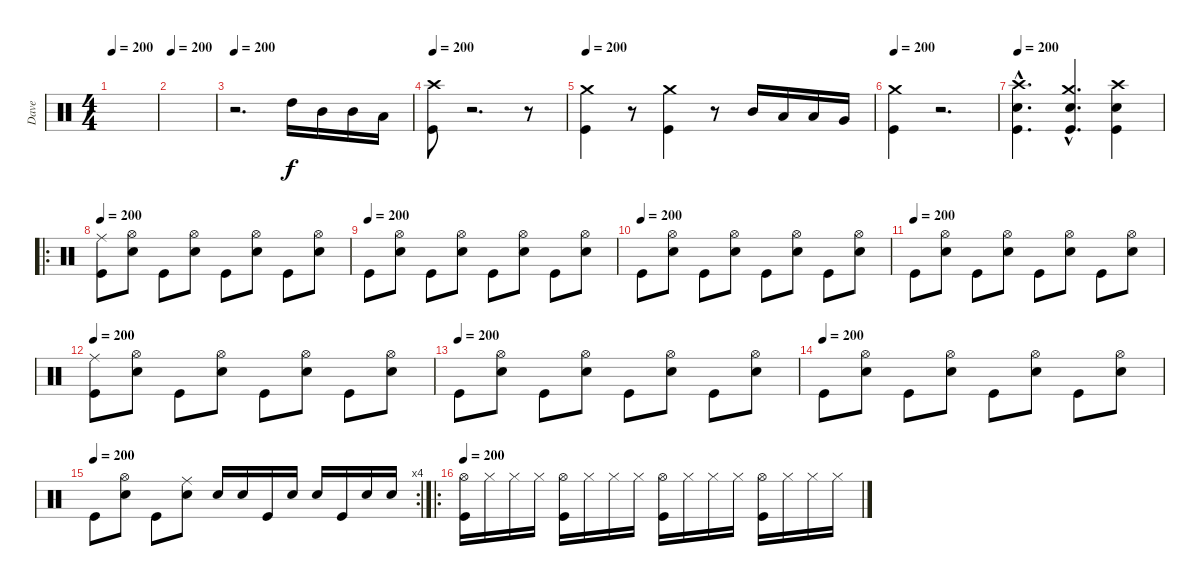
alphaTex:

\track ("Dave" "Dave") {instrument percussion}
\staff {score}
\articulation defaults
\ts (4 4)
\tempo 200
\clef neutral
\ks c
|
\tempo 200
|
\tempo 200
r.2{d} "High Tom (hit)".16 "Mid Tom (hit)".16 "Mid Tom (hit)".16 "Low Tom (hit)".16 |
\tempo 200
("Crash high (hit)" "Kick (hit)").8 r.2{d} r.8 |
\tempo 200
("Crash medium (hit)" "Kick (hit)").4 r.8 ("Crash medium (hit)" "Kick (hit)").4 r.8 "Mid Tom (hit)".16 "Low Tom (hit)".16 "Low Tom (hit)".16 "Very Low Tom (hit)".16 |
\tempo 200
("Crash medium (hit)" "Kick (hit)").4 r.2{d} |
\tempo 200
("Snare (hit) 2"{hac} "Crash high (hit)"{hac} "Kick (hit)"{hac}).4{d} ("Snare (hit) 2"{hac} "Crash medium (hit)"{hac} "Kick (hit)"{hac}).4{d} ("Snare (hit) 2" "Crash high (hit)" "Kick (hit)").4 |
\ro
\tempo 200
("Ride (middle)" "Kick (hit)").8 ("Hi-Hat (open)" "Snare (hit) 2").8 "Kick (hit)".8 ("Hi-Hat (open)" "Snare (hit) 2").8 "Kick (hit)".8 ("Hi-Hat (open)" "Snare (hit) 2").8 "Kick (hit)".8 ("Hi-Hat (open)" "Snare (hit) 2").8 |
\tempo (200)
"Kick (hit)".8 ("Hi-Hat (open)" "Snare (hit) 2").8 "Kick (hit)".8 ("Hi-Hat (open)" "Snare (hit) 2").8 "Kick (hit)".8 ("Hi-Hat (open)" "Snare (hit) 2").8 "Kick (hit)".8 ("Hi-Hat (open)" "Snare (hit) 2").8 |
\tempo (200)
"Kick (hit)".8 ("Hi-Hat (open)" "Snare (hit) 2").8 "Kick (hit)".8 ("Hi-Hat (open)" "Snare (hit) 2").8 "Kick (hit)".8 ("Hi-Hat (open)" "Snare (hit) 2").8 "Kick (hit)".8 ("Hi-Hat (open)" "Snare (hit) 2").8 |
\tempo (200)
"Kick (hit)".8 ("Hi-Hat (open)" "Snare (hit) 2").8 "Kick (hit)".8 ("Hi-Hat (open)" "Snare (hit) 2").8 "Kick (hit)".8 ("Hi-Hat (open)" "Snare (hit) 2").8 "Kick (hit)".8 ("Hi-Hat (open)" "Snare (hit) 2").8 |
\tempo 200
("Ride (middle)" "Kick (hit)").8 ("Hi-Hat (open)" "Snare (hit) 2").8 "Kick (hit)".8 ("Hi-Hat (open)" "Snare (hit) 2").8 "Kick (hit)".8 ("Hi-Hat (open)" "Snare (hit) 2").8 "Kick (hit)".8 ("Hi-Hat (open)" "Snare (hit) 2").8 |
\tempo (200)
"Kick (hit)".8 ("Hi-Hat (open)" "Snare (hit) 2").8 "Kick (hit)".8 ("Hi-Hat (open)" "Snare (hit) 2").8 "Kick (hit)".8 ("Hi-Hat (open)" "Snare (hit) 2").8 "Kick (hit)".8 ("Hi-Hat (open)" "Snare (hit) 2").8 |
\tempo (200)
"Kick (hit)".8 ("Hi-Hat (open)" "Snare (hit) 2").8 "Kick (hit)".8 ("Hi-Hat (open)" "Snare (hit) 2").8 "Kick (hit)".8 ("Hi-Hat (open)" "Snare (hit) 2").8 "Kick (hit)".8 ("Hi-Hat (open)" "Snare (hit) 2").8 |
\rc 4
\tempo (200)
"Kick (hit)".8 ("Hi-Hat (open)" "Snare (hit) 2").8 "Kick (hit)".8 ("Ride (middle)" "Snare (hit) 2").8 "Snare (hit) 2".16 "Snare (hit) 2".16 "Kick (hit)".16 "Snare (hit) 2".16 "Snare (hit) 2".16 "Kick (hit)".16 "Snare (hit) 2".16 "Snare (hit) 2".16 |
\ro
\tempo 200
("Hi-Hat (open)" "Kick (hit)").16 "Hi-Hat (closed)".16 "Hi-Hat (closed)".16 "Hi-Hat (closed)".16 ("Hi-Hat (open)" "Kick (hit)").16 "Hi-Hat (closed)".16 "Hi-Hat (closed)".16 "Hi-Hat (closed)".16 ("Hi-Hat (open)" "Kick (hit)").16 "Hi-Hat (closed)".16 "Hi-Hat (closed)".16 "Hi-Hat (closed)".16 ("Hi-Hat (open)" "Kick (hit)").16 "Hi-Hat (closed)".16 "Hi-Hat (closed)".16 "Hi-Hat (closed)".16
